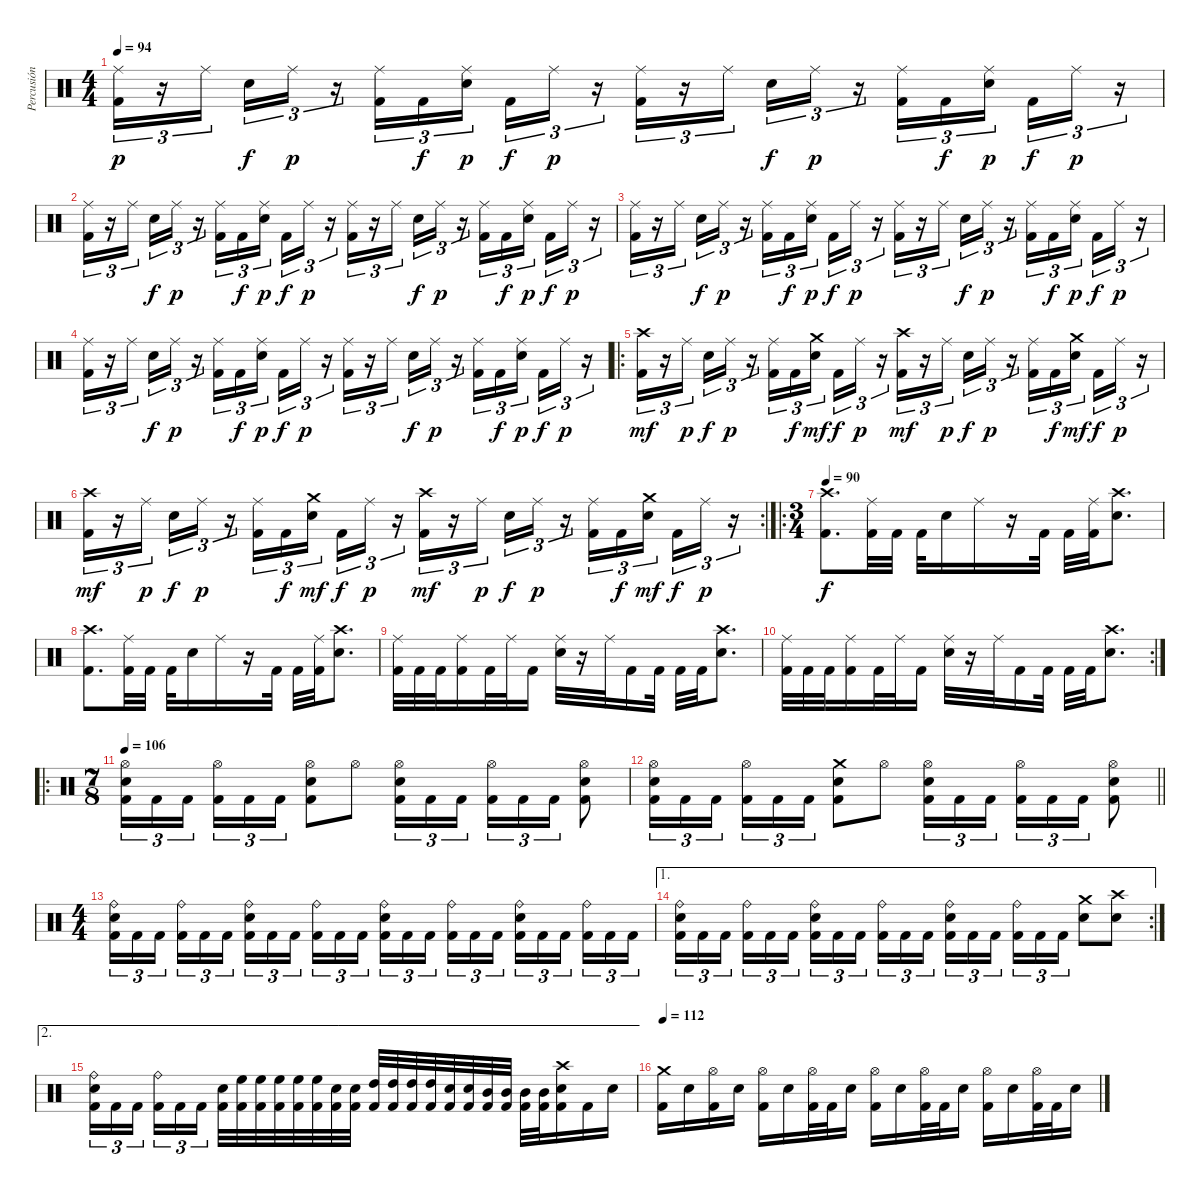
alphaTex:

\track ("Percusión" "Percusión") {instrument percussion}
\staff {score}
\articulation defaults
\ts (4 4)
\tempo 94
\clef neutral
\ks c
("Ride (middle)" "Kick (hit) 2").16{tu (3 2) dy p} r.16{tu (3 2)} "Ride (middle)".16{tu (3 2) beam splitsecondary} "Electric Snare (hit)".16{tu (3 2) dy f} "Ride (middle)".16{tu (3 2) dy p} r.16{tu (3 2)} ("Ride (middle)" "Kick (hit) 2").16{tu (3 2)} "Kick (hit) 2".16{tu (3 2) dy f} ("Ride (middle)" "Electric Snare (hit)").16{tu (3 2) dy p beam splitsecondary} "Kick (hit) 2".16{tu (3 2) dy f} "Ride (middle)".16{tu (3 2) dy p} r.16{tu (3 2)} ("Ride (middle)" "Kick (hit) 2").16{tu (3 2)} r.16{tu (3 2)} "Ride (middle)".16{tu (3 2) beam splitsecondary} "Electric Snare (hit)".16{tu (3 2) dy f} "Ride (middle)".16{tu (3 2) dy p} r.16{tu (3 2)} ("Ride (middle)" "Kick (hit) 2").16{tu (3 2)} "Kick (hit) 2".16{tu (3 2) dy f} ("Ride (middle)" "Electric Snare (hit)").16{tu (3 2) dy p beam splitsecondary} "Kick (hit) 2".16{tu (3 2) dy f} "Ride (middle)".16{tu (3 2) dy p} r.16{tu (3 2)} |
("Ride (middle)" "Kick (hit) 2").16{tu (3 2)} r.16{tu (3 2)} "Ride (middle)".16{tu (3 2) beam splitsecondary} "Electric Snare (hit)".16{tu (3 2) dy f} "Ride (middle)".16{tu (3 2) dy p} r.16{tu (3 2)} ("Ride (middle)" "Kick (hit) 2").16{tu (3 2)} "Kick (hit) 2".16{tu (3 2) dy f} ("Ride (middle)" "Electric Snare (hit)").16{tu (3 2) dy p beam splitsecondary} "Kick (hit) 2".16{tu (3 2) dy f} "Ride (middle)".16{tu (3 2) dy p} r.16{tu (3 2)} ("Ride (middle)" "Kick (hit) 2").16{tu (3 2)} r.16{tu (3 2)} "Ride (middle)".16{tu (3 2) beam splitsecondary} "Electric Snare (hit)".16{tu (3 2) dy f} "Ride (middle)".16{tu (3 2) dy p} r.16{tu (3 2)} ("Ride (middle)" "Kick (hit) 2").16{tu (3 2)} "Kick (hit) 2".16{tu (3 2) dy f} ("Ride (middle)" "Electric Snare (hit)").16{tu (3 2) dy p beam splitsecondary} "Kick (hit) 2".16{tu (3 2) dy f} "Ride (middle)".16{tu (3 2) dy p} r.16{tu (3 2)} |
("Ride (middle)" "Kick (hit) 2").16{tu (3 2)} r.16{tu (3 2)} "Ride (middle)".16{tu (3 2) beam splitsecondary} "Electric Snare (hit)".16{tu (3 2) dy f} "Ride (middle)".16{tu (3 2) dy p} r.16{tu (3 2)} ("Ride (middle)" "Kick (hit) 2").16{tu (3 2)} "Kick (hit) 2".16{tu (3 2) dy f} ("Ride (middle)" "Electric Snare (hit)").16{tu (3 2) dy p beam splitsecondary} "Kick (hit) 2".16{tu (3 2) dy f} "Ride (middle)".16{tu (3 2) dy p} r.16{tu (3 2)} ("Ride (middle)" "Kick (hit) 2").16{tu (3 2)} r.16{tu (3 2)} "Ride (middle)".16{tu (3 2) beam splitsecondary} "Electric Snare (hit)".16{tu (3 2) dy f} "Ride (middle)".16{tu (3 2) dy p} r.16{tu (3 2)} ("Ride (middle)" "Kick (hit) 2").16{tu (3 2)} "Kick (hit) 2".16{tu (3 2) dy f} ("Ride (middle)" "Electric Snare (hit)").16{tu (3 2) dy p beam splitsecondary} "Kick (hit) 2".16{tu (3 2) dy f} "Ride (middle)".16{tu (3 2) dy p} r.16{tu (3 2)} |
("Ride (middle)" "Kick (hit) 2").16{tu (3 2)} r.16{tu (3 2)} "Ride (middle)".16{tu (3 2) beam splitsecondary} "Electric Snare (hit)".16{tu (3 2) dy f} "Ride (middle)".16{tu (3 2) dy p} r.16{tu (3 2)} ("Ride (middle)" "Kick (hit) 2").16{tu (3 2)} "Kick (hit) 2".16{tu (3 2) dy f} ("Ride (middle)" "Electric Snare (hit)").16{tu (3 2) dy p beam splitsecondary} "Kick (hit) 2".16{tu (3 2) dy f} "Ride (middle)".16{tu (3 2) dy p} r.16{tu (3 2)} ("Ride (middle)" "Kick (hit) 2").16{tu (3 2)} r.16{tu (3 2)} "Ride (middle)".16{tu (3 2) beam splitsecondary} "Electric Snare (hit)".16{tu (3 2) dy f} "Ride (middle)".16{tu (3 2) dy p} r.16{tu (3 2)} ("Ride (middle)" "Kick (hit) 2").16{tu (3 2)} "Kick (hit) 2".16{tu (3 2) dy f} ("Ride (middle)" "Electric Snare (hit)").16{tu (3 2) dy p beam splitsecondary} "Kick (hit) 2".16{tu (3 2) dy f} "Ride (middle)".16{tu (3 2) dy p} r.16{tu (3 2)} |
\ro
("Kick (hit) 2" "Crash high (hit)").16{tu (3 2) dy mf} r.16{tu (3 2)} "Ride (middle)".16{tu (3 2) dy p beam splitsecondary} "Electric Snare (hit)".16{tu (3 2) dy f} "Ride (middle)".16{tu (3 2) dy p} r.16{tu (3 2)} ("Ride (middle)" "Kick (hit) 2").16{tu (3 2)} "Kick (hit) 2".16{tu (3 2) dy f} ("Electric Snare (hit)" "Crash medium (hit)").16{tu (3 2) dy mf beam splitsecondary} "Kick (hit) 2".16{tu (3 2) dy f} "Ride (middle)".16{tu (3 2) dy p} r.16{tu (3 2)} ("Kick (hit) 2" "Crash high (hit)").16{tu (3 2) dy mf} r.16{tu (3 2)} "Ride (middle)".16{tu (3 2) dy p beam splitsecondary} "Electric Snare (hit)".16{tu (3 2) dy f} "Ride (middle)".16{tu (3 2) dy p} r.16{tu (3 2)} ("Ride (middle)" "Kick (hit) 2").16{tu (3 2)} "Kick (hit) 2".16{tu (3 2) dy f} ("Electric Snare (hit)" "Crash medium (hit)").16{tu (3 2) dy mf beam splitsecondary} "Kick (hit) 2".16{tu (3 2) dy f} "Ride (middle)".16{tu (3 2) dy p} r.16{tu (3 2)} |
\rc 2
("Kick (hit) 2" "Crash high (hit)").16{tu (3 2) dy mf} r.16{tu (3 2)} "Ride (middle)".16{tu (3 2) dy p beam splitsecondary} "Electric Snare (hit)".16{tu (3 2) dy f} "Ride (middle)".16{tu (3 2) dy p} r.16{tu (3 2)} ("Ride (middle)" "Kick (hit) 2").16{tu (3 2)} "Kick (hit) 2".16{tu (3 2) dy f} ("Electric Snare (hit)" "Crash medium (hit)").16{tu (3 2) dy mf beam splitsecondary} "Kick (hit) 2".16{tu (3 2) dy f} "Ride (middle)".16{tu (3 2) dy p} r.16{tu (3 2)} ("Kick (hit) 2" "Crash high (hit)").16{tu (3 2) dy mf} r.16{tu (3 2)} "Ride (middle)".16{tu (3 2) dy p beam splitsecondary} "Electric Snare (hit)".16{tu (3 2) dy f} "Ride (middle)".16{tu (3 2) dy p} r.16{tu (3 2)} ("Ride (middle)" "Kick (hit) 2").16{tu (3 2)} "Kick (hit) 2".16{tu (3 2) dy f} ("Electric Snare (hit)" "Crash medium (hit)").16{tu (3 2) dy mf beam splitsecondary} "Kick (hit) 2".16{tu (3 2) dy f} "Ride (middle)".16{tu (3 2) dy p} r.16{tu (3 2)} |
\ro
\ts (3 4)
\tempo 90
("Kick (hit) 2" "Crash high (hit)").8{d dy f} ("Ride (middle)" "Kick (hit) 2").32 "Kick (hit) 2".32 "Kick (hit) 2".32 "Electric Snare (hit)".16 "Ride (middle)".16 r.16 "Kick (hit) 2".32 "Kick (hit) 2".32 ("Ride (middle)" "Kick (hit) 2").32 ("Electric Snare (hit)" "Crash high (hit)").8{d} |
("Kick (hit) 2" "Crash high (hit)").8{d} ("Ride (middle)" "Kick (hit) 2").32 "Kick (hit) 2".32 "Kick (hit) 2".32 "Electric Snare (hit)".16 "Ride (middle)".16 r.16 "Kick (hit) 2".32 "Kick (hit) 2".32 ("Ride (middle)" "Kick (hit) 2").32 ("Electric Snare (hit)" "Crash high (hit)").8{d} |
("Ride (middle)" "Kick (hit) 2").32 "Kick (hit) 2".32 "Kick (hit) 2".32 ("Ride (middle)" "Kick (hit) 2").16 "Kick (hit) 2".32 "Ride (middle)".32 "Kick (hit) 2".16 ("Ride (middle)" "Electric Snare (hit)").32 r.16 "Ride (middle)".32 "Kick (hit) 2".16 "Kick (hit) 2".32 "Kick (hit) 2".32 "Kick (hit) 2".32 ("Electric Snare (hit)" "Crash high (hit)").8{d} |
\rc 2
("Ride (middle)" "Kick (hit) 2").32 "Kick (hit) 2".32 "Kick (hit) 2".32 ("Ride (middle)" "Kick (hit) 2").16 "Kick (hit) 2".32 "Ride (middle)".32 "Kick (hit) 2".16 ("Ride (middle)" "Electric Snare (hit)").32 r.16 "Ride (middle)".32 "Kick (hit) 2".16 "Kick (hit) 2".32 "Kick (hit) 2".32 "Kick (hit) 2".32 ("Electric Snare (hit)" "Crash high (hit)").8{d} |
\ro
\ts (7 8)
\tempo 106
("Hi-Hat (open)" "Electric Snare (hit)" "Kick (hit) 2").16{tu (3 2)} "Kick (hit) 2".16{tu (3 2)} "Kick (hit) 2".16{tu (3 2)} ("Hi-Hat (open)" "Kick (hit) 2").16{tu (3 2)} "Kick (hit) 2".16{tu (3 2)} "Kick (hit) 2".16{tu (3 2)} ("Hi-Hat (open)" "Electric Snare (hit)" "Kick (hit) 2").8 "Hi-Hat (open)".8 ("Hi-Hat (open)" "Electric Snare (hit)" "Kick (hit) 2").16{tu (3 2)} "Kick (hit) 2".16{tu (3 2)} "Kick (hit) 2".16{tu (3 2)} ("Hi-Hat (open)" "Kick (hit) 2").16{tu (3 2)} "Kick (hit) 2".16{tu (3 2)} "Kick (hit) 2".16{tu (3 2)} ("Hi-Hat (open)" "Electric Snare (hit)" "Kick (hit) 2").8 |
\barLineRight lightlight
("Hi-Hat (open)" "Electric Snare (hit)" "Kick (hit) 2").16{tu (3 2)} "Kick (hit) 2".16{tu (3 2)} "Kick (hit) 2".16{tu (3 2)} ("Hi-Hat (open)" "Kick (hit) 2").16{tu (3 2)} "Kick (hit) 2".16{tu (3 2)} "Kick (hit) 2".16{tu (3 2)} ("Electric Snare (hit)" "Kick (hit) 2" "Crash medium (hit)").8 "Hi-Hat (open)".8 ("Hi-Hat (open)" "Electric Snare (hit)" "Kick (hit) 2").16{tu (3 2)} "Kick (hit) 2".16{tu (3 2)} "Kick (hit) 2".16{tu (3 2)} ("Hi-Hat (open)" "Kick (hit) 2").16{tu (3 2)} "Kick (hit) 2".16{tu (3 2)} "Kick (hit) 2".16{tu (3 2)} ("Hi-Hat (open)" "Electric Snare (hit)" "Kick (hit) 2").8 |
\ts (4 4)
("Ride (bell)" "Electric Snare (hit)" "Kick (hit) 2").16{tu (3 2)} "Kick (hit) 2".16{tu (3 2)} "Kick (hit) 2".16{tu (3 2) beam splitsecondary} ("Ride (bell)" "Kick (hit) 2").16{tu (3 2)} "Kick (hit) 2".16{tu (3 2)} "Kick (hit) 2".16{tu (3 2)} ("Ride (bell)" "Electric Snare (hit)" "Kick (hit) 2").16{tu (3 2)} "Kick (hit) 2".16{tu (3 2)} "Kick (hit) 2".16{tu (3 2) beam splitsecondary} ("Ride (bell)" "Kick (hit) 2").16{tu (3 2)} "Kick (hit) 2".16{tu (3 2)} "Kick (hit) 2".16{tu (3 2)} ("Ride (bell)" "Electric Snare (hit)" "Kick (hit) 2").16{tu (3 2)} "Kick (hit) 2".16{tu (3 2)} "Kick (hit) 2".16{tu (3 2) beam splitsecondary} ("Ride (bell)" "Kick (hit) 2").16{tu (3 2)} "Kick (hit) 2".16{tu (3 2)} "Kick (hit) 2".16{tu (3 2)} ("Ride (bell)" "Electric Snare (hit)" "Kick (hit) 2").16{tu (3 2)} "Kick (hit) 2".16{tu (3 2)} "Kick (hit) 2".16{tu (3 2) beam splitsecondary} ("Ride (bell)" "Kick (hit) 2").16{tu (3 2)} "Kick (hit) 2".16{tu (3 2)} "Kick (hit) 2".16{tu (3 2)} |
\ae 1
\rc 2
("Ride (bell)" "Electric Snare (hit)" "Kick (hit) 2").16{tu (3 2)} "Kick (hit) 2".16{tu (3 2)} "Kick (hit) 2".16{tu (3 2) beam splitsecondary} ("Ride (bell)" "Kick (hit) 2").16{tu (3 2)} "Kick (hit) 2".16{tu (3 2)} "Kick (hit) 2".16{tu (3 2)} ("Ride (bell)" "Electric Snare (hit)" "Kick (hit) 2").16{tu (3 2)} "Kick (hit) 2".16{tu (3 2)} "Kick (hit) 2".16{tu (3 2) beam splitsecondary} ("Ride (bell)" "Kick (hit) 2").16{tu (3 2)} "Kick (hit) 2".16{tu (3 2)} "Kick (hit) 2".16{tu (3 2)} ("Ride (bell)" "Electric Snare (hit)" "Kick (hit) 2").16{tu (3 2)} "Kick (hit) 2".16{tu (3 2)} "Kick (hit) 2".16{tu (3 2) beam splitsecondary} ("Ride (bell)" "Kick (hit) 2").16{tu (3 2)} "Kick (hit) 2".16{tu (3 2)} "Kick (hit) 2".16{tu (3 2)} ("Crash medium (hit)" "Electric Snare (hit)").8 ("Crash high (hit)" "Electric Snare (hit)").8 |
\ae 2
("Ride (bell)" "Electric Snare (hit)" "Kick (hit) 2").16{tu (3 2)} "Kick (hit) 2".16{tu (3 2)} "Kick (hit) 2".16{tu (3 2) beam splitsecondary} ("Ride (bell)" "Kick (hit) 2").16{tu (3 2)} "Kick (hit) 2".16{tu (3 2)} "Kick (hit) 2".16{tu (3 2)} ("Electric Snare (hit)" "Kick (hit) 2").32 ("High Floor Tom (hit)" "Kick (hit) 2").32 ("High Floor Tom (hit)" "Kick (hit) 2").32 ("High Floor Tom (hit)" "Kick (hit) 2").32 ("High Floor Tom (hit)" "Kick (hit) 2").32 ("High Floor Tom (hit)" "Kick (hit) 2").32 ("Electric Snare (hit)" "Kick (hit) 2").32 ("Electric Snare (hit)" "Kick (hit) 2").32 ("High Tom (hit)" "Kick (hit) 2").32 ("High Tom (hit)" "Kick (hit) 2").32 ("High Tom (hit)" "Kick (hit) 2").32 ("High Tom (hit)" "Kick (hit) 2").32 ("Electric Snare (hit)" "Kick (hit) 2").32 ("Electric Snare (hit)" "Kick (hit) 2").32 ("Mid Tom (hit)" "Kick (hit) 2").32 ("Mid Tom (hit)" "Kick (hit) 2").32 ("Mid Tom (hit)" "Kick (hit) 2").32 ("Mid Tom (hit)" "Kick (hit) 2").32 ("Electric Snare (hit)" "Kick (hit) 2" "Crash high (hit)").16 "Kick (hit) 2".16 "Electric Snare (hit)".16 |
\tempo 112
("Kick (hit) 2" "Crash medium (hit)").16 "Electric Snare (hit)".16 ("Hi-Hat (open)" "Kick (hit) 2").16 "Electric Snare (hit)".16 ("Hi-Hat (open)" "Kick (hit) 2").16 "Electric Snare (hit)".16 ("Hi-Hat (open)" "Kick (hit) 2").32 "Kick (hit) 2".32 "Electric Snare (hit)".16 ("Hi-Hat (open)" "Kick (hit) 2").16 "Electric Snare (hit)".16 ("Hi-Hat (open)" "Kick (hit) 2").32 "Kick (hit) 2".32 "Electric Snare (hit)".16 ("Hi-Hat (open)" "Kick (hit) 2").16 "Electric Snare (hit)".16 ("Hi-Hat (open)" "Kick (hit) 2").32 "Kick (hit) 2".32 "Electric Snare (hit)".16
